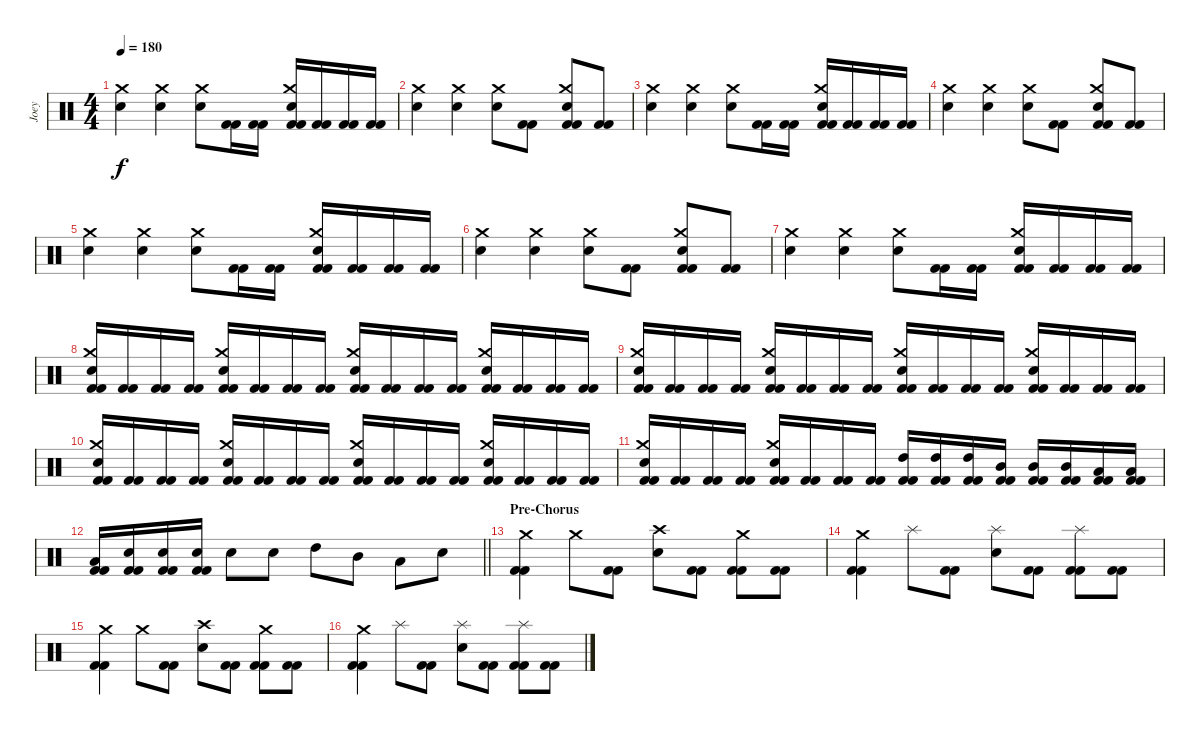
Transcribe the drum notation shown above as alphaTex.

\track ("Joey" "Joey") {instrument percussion}
\staff {score}
\articulation defaults
\ts (4 4)
\tempo 180
\clef neutral
\ks c
("Electric Snare (hit)" "Crash medium (hit)").4{dy f} ("Electric Snare (hit)" "Crash medium (hit)").4 ("Electric Snare (hit)" "Crash medium (hit)").8 ("Kick (hit) 2" "Kick (hit) 2").16 ("Kick (hit) 2" "Kick (hit) 2").16 ("Electric Snare (hit)" "Crash medium (hit)" "Kick (hit) 2" "Kick (hit) 2").16 ("Kick (hit) 2" "Kick (hit) 2").16 ("Kick (hit) 2" "Kick (hit) 2").16 ("Kick (hit) 2" "Kick (hit) 2").16 |
("Electric Snare (hit)" "Crash medium (hit)").4 ("Electric Snare (hit)" "Crash medium (hit)").4 ("Electric Snare (hit)" "Crash medium (hit)").8 ("Kick (hit) 2" "Kick (hit) 2").8 ("Electric Snare (hit)" "Crash medium (hit)" "Kick (hit) 2" "Kick (hit) 2").8 ("Kick (hit) 2" "Kick (hit) 2").8 |
("Electric Snare (hit)" "Crash medium (hit)").4 ("Electric Snare (hit)" "Crash medium (hit)").4 ("Electric Snare (hit)" "Crash medium (hit)").8 ("Kick (hit) 2" "Kick (hit) 2").16 ("Kick (hit) 2" "Kick (hit) 2").16 ("Electric Snare (hit)" "Crash medium (hit)" "Kick (hit) 2" "Kick (hit) 2").16 ("Kick (hit) 2" "Kick (hit) 2").16 ("Kick (hit) 2" "Kick (hit) 2").16 ("Kick (hit) 2" "Kick (hit) 2").16 |
("Electric Snare (hit)" "Crash medium (hit)").4 ("Electric Snare (hit)" "Crash medium (hit)").4 ("Electric Snare (hit)" "Crash medium (hit)").8 ("Kick (hit) 2" "Kick (hit) 2").8 ("Electric Snare (hit)" "Crash medium (hit)" "Kick (hit) 2" "Kick (hit) 2").8 ("Kick (hit) 2" "Kick (hit) 2").8 |
("Electric Snare (hit)" "Crash medium (hit)").4 ("Electric Snare (hit)" "Crash medium (hit)").4 ("Electric Snare (hit)" "Crash medium (hit)").8 ("Kick (hit) 2" "Kick (hit) 2").16 ("Kick (hit) 2" "Kick (hit) 2").16 ("Electric Snare (hit)" "Crash medium (hit)" "Kick (hit) 2" "Kick (hit) 2").16 ("Kick (hit) 2" "Kick (hit) 2").16 ("Kick (hit) 2" "Kick (hit) 2").16 ("Kick (hit) 2" "Kick (hit) 2").16 |
("Electric Snare (hit)" "Crash medium (hit)").4 ("Electric Snare (hit)" "Crash medium (hit)").4 ("Electric Snare (hit)" "Crash medium (hit)").8 ("Kick (hit) 2" "Kick (hit) 2").8 ("Electric Snare (hit)" "Crash medium (hit)" "Kick (hit) 2" "Kick (hit) 2").8 ("Kick (hit) 2" "Kick (hit) 2").8 |
("Electric Snare (hit)" "Crash medium (hit)").4 ("Electric Snare (hit)" "Crash medium (hit)").4 ("Electric Snare (hit)" "Crash medium (hit)").8 ("Kick (hit) 2" "Kick (hit) 2").16 ("Kick (hit) 2" "Kick (hit) 2").16 ("Electric Snare (hit)" "Crash medium (hit)" "Kick (hit) 2" "Kick (hit) 2").16 ("Kick (hit) 2" "Kick (hit) 2").16 ("Kick (hit) 2" "Kick (hit) 2").16 ("Kick (hit) 2" "Kick (hit) 2").16 |
("Electric Snare (hit)" "Crash medium (hit)" "Kick (hit) 2" "Kick (hit) 2").16 ("Kick (hit) 2" "Kick (hit) 2").16 ("Kick (hit) 2" "Kick (hit) 2").16 ("Kick (hit) 2" "Kick (hit) 2").16 ("Electric Snare (hit)" "Crash medium (hit)" "Kick (hit) 2" "Kick (hit) 2").16 ("Kick (hit) 2" "Kick (hit) 2").16 ("Kick (hit) 2" "Kick (hit) 2").16 ("Kick (hit) 2" "Kick (hit) 2").16 ("Electric Snare (hit)" "Crash medium (hit)" "Kick (hit) 2" "Kick (hit) 2").16 ("Kick (hit) 2" "Kick (hit) 2").16 ("Kick (hit) 2" "Kick (hit) 2").16 ("Kick (hit) 2" "Kick (hit) 2").16 ("Electric Snare (hit)" "Crash medium (hit)" "Kick (hit) 2" "Kick (hit) 2").16 ("Kick (hit) 2" "Kick (hit) 2").16 ("Kick (hit) 2" "Kick (hit) 2").16 ("Kick (hit) 2" "Kick (hit) 2").16 |
("Electric Snare (hit)" "Crash medium (hit)" "Kick (hit) 2" "Kick (hit) 2").16 ("Kick (hit) 2" "Kick (hit) 2").16 ("Kick (hit) 2" "Kick (hit) 2").16 ("Kick (hit) 2" "Kick (hit) 2").16 ("Electric Snare (hit)" "Crash medium (hit)" "Kick (hit) 2" "Kick (hit) 2").16 ("Kick (hit) 2" "Kick (hit) 2").16 ("Kick (hit) 2" "Kick (hit) 2").16 ("Kick (hit) 2" "Kick (hit) 2").16 ("Electric Snare (hit)" "Crash medium (hit)" "Kick (hit) 2" "Kick (hit) 2").16 ("Kick (hit) 2" "Kick (hit) 2").16 ("Kick (hit) 2" "Kick (hit) 2").16 ("Kick (hit) 2" "Kick (hit) 2").16 ("Electric Snare (hit)" "Crash medium (hit)" "Kick (hit) 2" "Kick (hit) 2").16 ("Kick (hit) 2" "Kick (hit) 2").16 ("Kick (hit) 2" "Kick (hit) 2").16 ("Kick (hit) 2" "Kick (hit) 2").16 |
("Electric Snare (hit)" "Crash medium (hit)" "Kick (hit) 2" "Kick (hit) 2").16 ("Kick (hit) 2" "Kick (hit) 2").16 ("Kick (hit) 2" "Kick (hit) 2").16 ("Kick (hit) 2" "Kick (hit) 2").16 ("Electric Snare (hit)" "Crash medium (hit)" "Kick (hit) 2" "Kick (hit) 2").16 ("Kick (hit) 2" "Kick (hit) 2").16 ("Kick (hit) 2" "Kick (hit) 2").16 ("Kick (hit) 2" "Kick (hit) 2").16 ("Electric Snare (hit)" "Crash medium (hit)" "Kick (hit) 2" "Kick (hit) 2").16 ("Kick (hit) 2" "Kick (hit) 2").16 ("Kick (hit) 2" "Kick (hit) 2").16 ("Kick (hit) 2" "Kick (hit) 2").16 ("Electric Snare (hit)" "Crash medium (hit)" "Kick (hit) 2" "Kick (hit) 2").16 ("Kick (hit) 2" "Kick (hit) 2").16 ("Kick (hit) 2" "Kick (hit) 2").16 ("Kick (hit) 2" "Kick (hit) 2").16 |
("Electric Snare (hit)" "Crash medium (hit)" "Kick (hit) 2" "Kick (hit) 2").16 ("Kick (hit) 2" "Kick (hit) 2").16 ("Kick (hit) 2" "Kick (hit) 2").16 ("Kick (hit) 2" "Kick (hit) 2").16 ("Electric Snare (hit)" "Crash medium (hit)" "Kick (hit) 2" "Kick (hit) 2").16 ("Kick (hit) 2" "Kick (hit) 2").16 ("Kick (hit) 2" "Kick (hit) 2").16 ("Kick (hit) 2" "Kick (hit) 2").16 ("High Tom (hit)" "Kick (hit) 2" "Kick (hit) 2").16 ("High Tom (hit)" "Kick (hit) 2" "Kick (hit) 2").16 ("High Tom (hit)" "Kick (hit) 2" "Kick (hit) 2").16 ("Mid Tom (hit)" "Kick (hit) 2" "Kick (hit) 2").16 ("Mid Tom (hit)" "Kick (hit) 2" "Kick (hit) 2").16 ("Mid Tom (hit)" "Kick (hit) 2" "Kick (hit) 2").16 ("Low Tom (hit)" "Kick (hit) 2" "Kick (hit) 2").16 ("Low Tom (hit)" "Kick (hit) 2" "Kick (hit) 2").16 |
\barLineRight lightlight
("Low Tom (hit)" "Kick (hit) 2" "Kick (hit) 2").16 ("Electric Snare (hit)" "Kick (hit) 2" "Kick (hit) 2").16 ("Electric Snare (hit)" "Kick (hit) 2" "Kick (hit) 2").16 ("Electric Snare (hit)" "Kick (hit) 2" "Kick (hit) 2").16 "Electric Snare (hit)".8 "Electric Snare (hit)".8 "High Tom (hit)".8 "Mid Tom (hit)".8 "Low Tom (hit)".8 "Electric Snare (hit)".8 |
\section ("" "Pre-Chorus")
("Crash medium (hit)" "Kick (hit) 2" "Kick (hit) 2").4 "Crash medium (hit)".8 ("Kick (hit) 2" "Kick (hit) 2").8 ("Electric Snare (hit)" "Crash high (hit)").8 ("Kick (hit) 2" "Kick (hit) 2").8 ("Crash medium (hit)" "Kick (hit) 2" "Kick (hit) 2").8 ("Kick (hit) 2" "Kick (hit) 2").8 |
("Crash medium (hit)" "Kick (hit) 2" "Kick (hit) 2").4 "Splash (hit)".8 ("Kick (hit) 2" "Kick (hit) 2").8 ("Electric Snare (hit)" "Splash (hit)").8 ("Kick (hit) 2" "Kick (hit) 2").8 ("Splash (hit)" "Kick (hit) 2" "Kick (hit) 2").8 ("Kick (hit) 2" "Kick (hit) 2").8 |
("Crash medium (hit)" "Kick (hit) 2" "Kick (hit) 2").4 "Crash medium (hit)".8 ("Kick (hit) 2" "Kick (hit) 2").8 ("Electric Snare (hit)" "Crash high (hit)").8 ("Kick (hit) 2" "Kick (hit) 2").8 ("Crash medium (hit)" "Kick (hit) 2" "Kick (hit) 2").8 ("Kick (hit) 2" "Kick (hit) 2").8 |
("Crash medium (hit)" "Kick (hit) 2" "Kick (hit) 2").4 "Splash (hit)".8 ("Kick (hit) 2" "Kick (hit) 2").8 ("Electric Snare (hit)" "Splash (hit)").8 ("Kick (hit) 2" "Kick (hit) 2").8 ("Splash (hit)" "Kick (hit) 2" "Kick (hit) 2").8 ("Kick (hit) 2" "Kick (hit) 2").8
